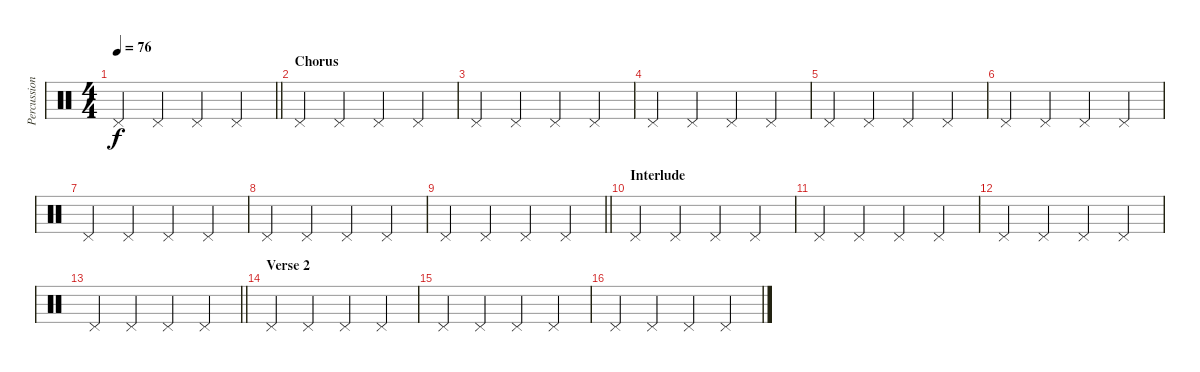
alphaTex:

\track ("Percussion" "Percussion") {instrument percussion}
\staff {score}
\articulation defaults
\ts (4 4)
\tempo 76
\clef neutral
\barLineRight lightlight
\ks c "Pedal Hi-Hat (hit)".4{dy f beam merge} "Pedal Hi-Hat (hit)".4 "Pedal Hi-Hat (hit)".4 "Pedal Hi-Hat (hit)".4
|
\section ("" "Chorus")
"Pedal Hi-Hat (hit)".4{beam merge} "Pedal Hi-Hat (hit)".4 "Pedal Hi-Hat (hit)".4 "Pedal Hi-Hat (hit)".4 |
"Pedal Hi-Hat (hit)".4{beam merge} "Pedal Hi-Hat (hit)".4 "Pedal Hi-Hat (hit)".4 "Pedal Hi-Hat (hit)".4 |
"Pedal Hi-Hat (hit)".4{beam merge} "Pedal Hi-Hat (hit)".4{beam merge} "Pedal Hi-Hat (hit)".4 "Pedal Hi-Hat (hit)".4 |
"Pedal Hi-Hat (hit)".4 "Pedal Hi-Hat (hit)".4 "Pedal Hi-Hat (hit)".4 "Pedal Hi-Hat (hit)".4 |
"Pedal Hi-Hat (hit)".4{beam merge} "Pedal Hi-Hat (hit)".4 "Pedal Hi-Hat (hit)".4 "Pedal Hi-Hat (hit)".4 |
"Pedal Hi-Hat (hit)".4{beam merge} "Pedal Hi-Hat (hit)".4 "Pedal Hi-Hat (hit)".4 "Pedal Hi-Hat (hit)".4 |
"Pedal Hi-Hat (hit)".4{beam merge} "Pedal Hi-Hat (hit)".4{beam merge} "Pedal Hi-Hat (hit)".4 "Pedal Hi-Hat (hit)".4 |
\barLineRight lightlight "Pedal Hi-Hat (hit)".4 "Pedal Hi-Hat (hit)".4 "Pedal Hi-Hat (hit)".4 "Pedal Hi-Hat (hit)".4
|
\section ("" "Interlude")
"Pedal Hi-Hat (hit)".4{beam merge} "Pedal Hi-Hat (hit)".4 "Pedal Hi-Hat (hit)".4 "Pedal Hi-Hat (hit)".4 |
"Pedal Hi-Hat (hit)".4{beam merge} "Pedal Hi-Hat (hit)".4 "Pedal Hi-Hat (hit)".4 "Pedal Hi-Hat (hit)".4 |
"Pedal Hi-Hat (hit)".4{beam merge} "Pedal Hi-Hat (hit)".4{beam merge} "Pedal Hi-Hat (hit)".4 "Pedal Hi-Hat (hit)".4 |
\barLineRight lightlight "Pedal Hi-Hat (hit)".4 "Pedal Hi-Hat (hit)".4 "Pedal Hi-Hat (hit)".4 "Pedal Hi-Hat (hit)".4
|
\section ("" "Verse 2")
"Pedal Hi-Hat (hit)".4{beam merge} "Pedal Hi-Hat (hit)".4 "Pedal Hi-Hat (hit)".4 "Pedal Hi-Hat (hit)".4 |
"Pedal Hi-Hat (hit)".4{beam merge} "Pedal Hi-Hat (hit)".4 "Pedal Hi-Hat (hit)".4 "Pedal Hi-Hat (hit)".4 |
"Pedal Hi-Hat (hit)".4{beam merge} "Pedal Hi-Hat (hit)".4{beam merge} "Pedal Hi-Hat (hit)".4 "Pedal Hi-Hat (hit)".4
